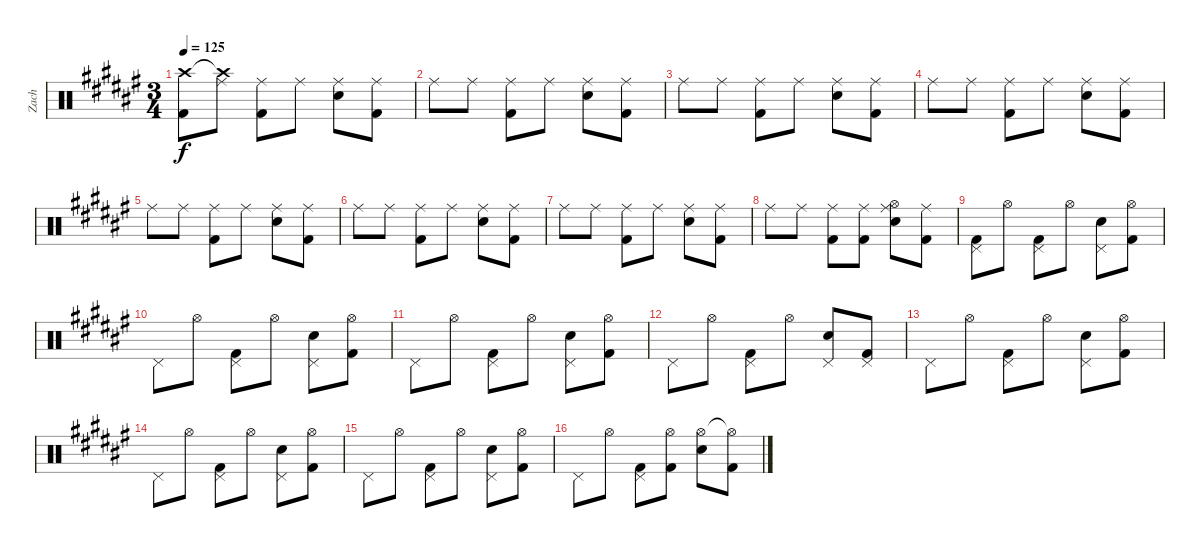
\track ("Zach" "Zach") {instrument percussion}
\staff {score}
\articulation defaults
\ts (3 4)
\tempo 125
\clef neutral
\ks f#
("Crash high (hit)" "Kick (hit) 2").8{dy f} ("Crash high (hit)"{t} "Ride (middle)").8 ("Ride (middle)" "Kick (hit) 2").8 "Ride (middle)".8 ("Ride (middle)" "Snare (hit) 2").8 ("Ride (middle)" "Kick (hit) 2").8 |
"Ride (middle)".8 "Ride (middle)".8 ("Ride (middle)" "Kick (hit) 2").8 "Ride (middle)".8 ("Ride (middle)" "Snare (hit) 2").8 ("Ride (middle)" "Kick (hit) 2").8 |
"Ride (middle)".8 "Ride (middle)".8 ("Ride (middle)" "Kick (hit) 2").8 "Ride (middle)".8 ("Ride (middle)" "Snare (hit) 2").8 ("Ride (middle)" "Kick (hit) 2").8 |
"Ride (middle)".8 "Ride (middle)".8 ("Ride (middle)" "Kick (hit) 2").8 "Ride (middle)".8 ("Ride (middle)" "Snare (hit) 2").8 ("Ride (middle)" "Kick (hit) 2").8 |
"Ride (middle)".8 "Ride (middle)".8 ("Ride (middle)" "Kick (hit) 2").8 "Ride (middle)".8 ("Ride (middle)" "Snare (hit) 2").8 ("Ride (middle)" "Kick (hit) 2").8 |
"Ride (middle)".8 "Ride (middle)".8 ("Ride (middle)" "Kick (hit) 2").8 "Ride (middle)".8 ("Ride (middle)" "Snare (hit) 2").8 ("Ride (middle)" "Kick (hit) 2").8 |
"Ride (middle)".8 "Ride (middle)".8 ("Ride (middle)" "Kick (hit) 2").8 "Ride (middle)".8 ("Ride (middle)" "Snare (hit) 2").8 ("Ride (middle)" "Kick (hit) 2").8 |
"Ride (middle)".8 "Ride (middle)".8 ("Ride (middle)" "Kick (hit) 2").8 ("Ride (middle)" "Kick (hit) 2").8 ("Hi-Hat (open)" "Ride (middle)" "Snare (hit) 2").8 ("Ride (middle)" "Kick (hit) 2").8 |
("Pedal Hi-Hat (hit)" "Kick (hit) 2").8 "Hi-Hat (open)".8 ("Pedal Hi-Hat (hit)" "Kick (hit) 2").8 "Hi-Hat (open)".8 ("Pedal Hi-Hat (hit)" "Snare (hit) 2").8 ("Hi-Hat (open)" "Kick (hit) 2").8 |
"Pedal Hi-Hat (hit)".8 "Hi-Hat (open)".8 ("Pedal Hi-Hat (hit)" "Kick (hit) 2").8 "Hi-Hat (open)".8 ("Pedal Hi-Hat (hit)" "Snare (hit) 2").8 ("Hi-Hat (open)" "Kick (hit) 2").8 |
"Pedal Hi-Hat (hit)".8 "Hi-Hat (open)".8 ("Pedal Hi-Hat (hit)" "Kick (hit) 2").8 "Hi-Hat (open)".8 ("Pedal Hi-Hat (hit)" "Snare (hit) 2").8 ("Hi-Hat (open)" "Kick (hit) 2").8 |
"Pedal Hi-Hat (hit)".8 "Hi-Hat (open)".8 ("Pedal Hi-Hat (hit)" "Kick (hit) 2").8 "Hi-Hat (open)".8 ("Pedal Hi-Hat (hit)" "Snare (hit) 2").8 ("Pedal Hi-Hat (hit)" "Kick (hit) 2").8 |
"Pedal Hi-Hat (hit)".8 "Hi-Hat (open)".8 ("Pedal Hi-Hat (hit)" "Kick (hit) 2").8 "Hi-Hat (open)".8 ("Pedal Hi-Hat (hit)" "Snare (hit) 2").8 ("Hi-Hat (open)" "Kick (hit) 2").8 |
"Pedal Hi-Hat (hit)".8 "Hi-Hat (open)".8 ("Pedal Hi-Hat (hit)" "Kick (hit) 2").8 "Hi-Hat (open)".8 ("Pedal Hi-Hat (hit)" "Snare (hit) 2").8 ("Hi-Hat (open)" "Kick (hit) 2").8 |
"Pedal Hi-Hat (hit)".8 "Hi-Hat (open)".8 ("Pedal Hi-Hat (hit)" "Kick (hit) 2").8 "Hi-Hat (open)".8 ("Pedal Hi-Hat (hit)" "Snare (hit) 2").8 ("Hi-Hat (open)" "Kick (hit) 2").8 |
"Pedal Hi-Hat (hit)".8 "Hi-Hat (open)".8 ("Pedal Hi-Hat (hit)" "Kick (hit) 2").8 ("Hi-Hat (open)" "Kick (hit) 2").8 ("Hi-Hat (open)" "Snare (hit) 2").8 ("Hi-Hat (open)"{t} "Kick (hit) 2").8
